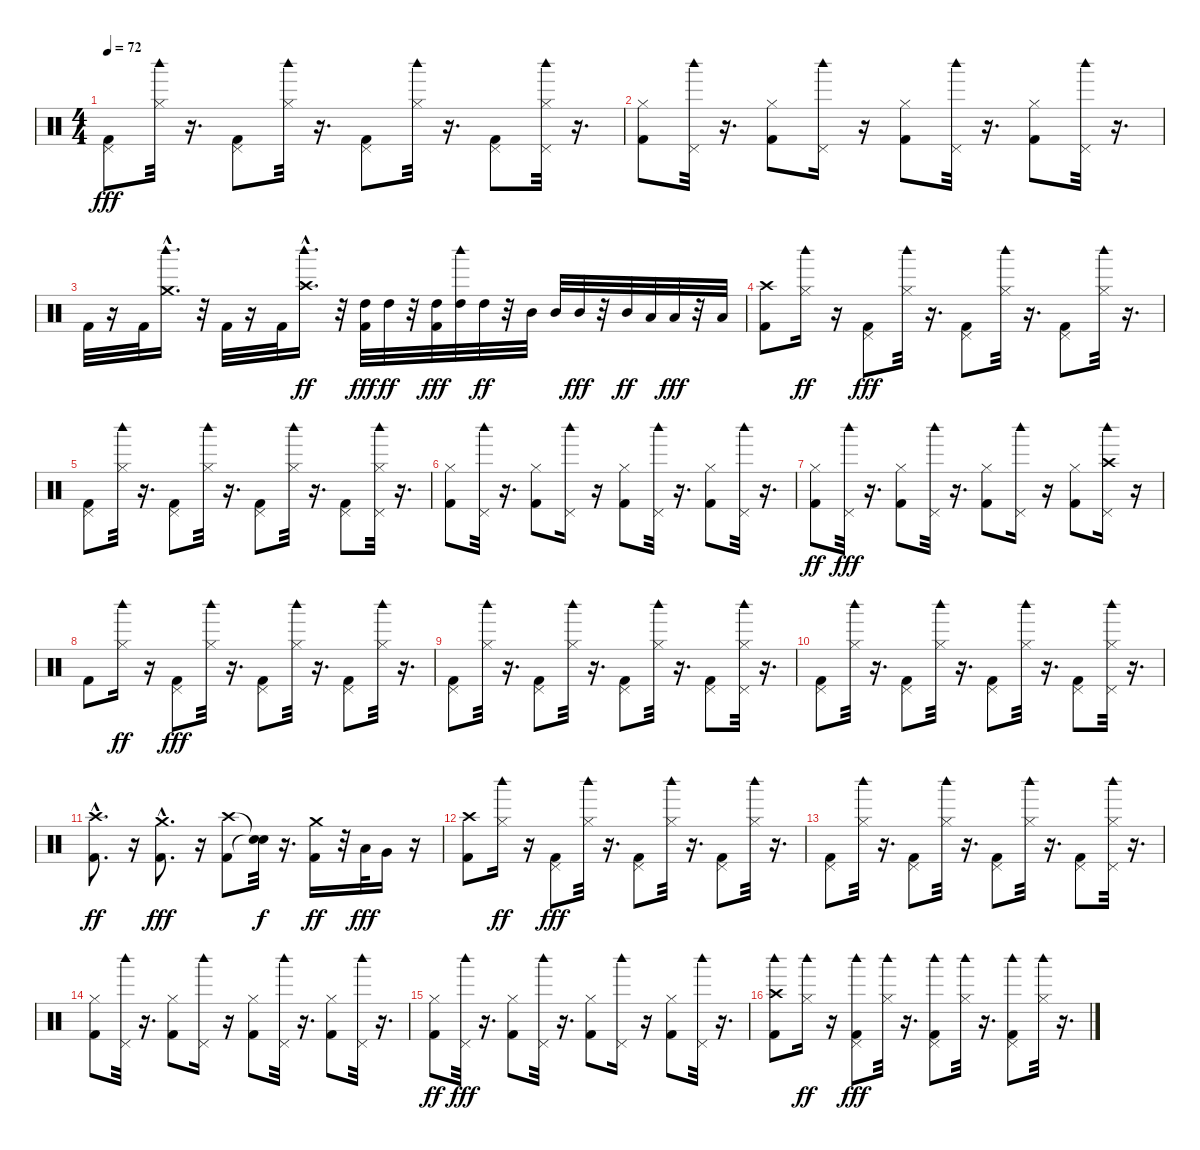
\track "" {instrument percussion}
\staff {score}
\articulation defaults
\ts (4 4)
\tempo 72
\clef neutral
\ks c
("Pedal Hi-Hat (hit)" "Kick (hit) 2").8{dy fff} ("Hi-Hat (closed)" "Woodblock high (hit)").32 r.16{d} ("Pedal Hi-Hat (hit)" "Kick (hit) 2").8 ("Hi-Hat (closed)" "Woodblock high (hit)").32 r.16{d} ("Pedal Hi-Hat (hit)" "Kick (hit) 2").8 ("Hi-Hat (closed)" "Woodblock high (hit)").32 r.16{d} ("Pedal Hi-Hat (hit)" "Kick (hit) 2").8 ("Hi-Hat (closed)" "Pedal Hi-Hat (hit)" "Woodblock high (hit)").32 r.16{d} |
("Hi-Hat (closed)" "Kick (hit) 2").8 ("Pedal Hi-Hat (hit)" "Woodblock high (hit)").32 r.16{d} ("Hi-Hat (closed)" "Kick (hit) 2").8 ("Pedal Hi-Hat (hit)" "Woodblock high (hit)").16 r.16 ("Hi-Hat (closed)" "Kick (hit) 2").8 ("Pedal Hi-Hat (hit)" "Woodblock high (hit)").32 r.16{d} ("Hi-Hat (closed)" "Kick (hit) 2").8 ("Pedal Hi-Hat (hit)" "Woodblock high (hit)").32 r.16{d} |
"Kick (hit) 2".32 r.16 "Kick (hit) 2".32 ("Crash medium (hit)" "Woodblock high (hit)"{hac}).16{d} r.32 "Kick (hit) 2".32 r.16 "Kick (hit) 2".32 ("Woodblock high (hit)"{hac} "Crash high (hit)").16{d dy ff} r.32 ("High Tom (hit)" "Kick (hit) 2").32{dy fff} "High Tom (hit)".32{dy ff} r.32 ("High Tom (hit)" "Kick (hit) 2").32{dy fff} ("High Tom (hit)" "Woodblock high (hit)").32 "High Tom (hit)".32{dy ff} r.32 "Mid Tom (hit)".32 "Mid Tom (hit)".32 "Mid Tom (hit)".32{dy fff} r.32 "Mid Tom (hit)".32{dy ff} "Low Tom (hit)".32 "Low Tom (hit)".32{dy fff} r.32 "Low Tom (hit)".32 |
("Kick (hit) 2" "Crash high (hit)").8 ("Woodblock high (hit)" "Hi-Hat (closed)").16{dy ff} r.16 ("Pedal Hi-Hat (hit)" "Kick (hit) 2").8{dy fff} ("Hi-Hat (closed)" "Woodblock high (hit)").32 r.16{d} ("Pedal Hi-Hat (hit)" "Kick (hit) 2").8 ("Hi-Hat (closed)" "Woodblock high (hit)").32 r.16{d} ("Pedal Hi-Hat (hit)" "Kick (hit) 2").8 ("Hi-Hat (closed)" "Woodblock high (hit)").32 r.16{d} |
("Pedal Hi-Hat (hit)" "Kick (hit) 2").8 ("Hi-Hat (closed)" "Woodblock high (hit)").32 r.16{d} ("Pedal Hi-Hat (hit)" "Kick (hit) 2").8 ("Hi-Hat (closed)" "Woodblock high (hit)").32 r.16{d} ("Pedal Hi-Hat (hit)" "Kick (hit) 2").8 ("Hi-Hat (closed)" "Woodblock high (hit)").32 r.16{d} ("Pedal Hi-Hat (hit)" "Kick (hit) 2").8 ("Hi-Hat (closed)" "Pedal Hi-Hat (hit)" "Woodblock high (hit)").32 r.16{d} |
("Hi-Hat (closed)" "Kick (hit) 2").8 ("Pedal Hi-Hat (hit)" "Woodblock high (hit)").32 r.16{d} ("Hi-Hat (closed)" "Kick (hit) 2").8 ("Pedal Hi-Hat (hit)" "Woodblock high (hit)").16 r.16 ("Hi-Hat (closed)" "Kick (hit) 2").8 ("Pedal Hi-Hat (hit)" "Woodblock high (hit)").32 r.16{d} ("Hi-Hat (closed)" "Kick (hit) 2").8 ("Pedal Hi-Hat (hit)" "Woodblock high (hit)").32 r.16{d} |
("Kick (hit) 2" "Hi-Hat (closed)").8{dy ff} ("Pedal Hi-Hat (hit)" "Woodblock high (hit)").32{dy fff} r.16{d} ("Hi-Hat (closed)" "Kick (hit) 2").8 ("Pedal Hi-Hat (hit)" "Woodblock high (hit)").32 r.16{d} ("Hi-Hat (closed)" "Kick (hit) 2").8 ("Pedal Hi-Hat (hit)" "Woodblock high (hit)").16 r.16 ("Hi-Hat (closed)" "Kick (hit) 2").8 ("Crash high (hit)" "Pedal Hi-Hat (hit)" "Woodblock high (hit)").16 r.16 |
"Kick (hit) 2".8 ("Woodblock high (hit)" "Hi-Hat (closed)").16{dy ff} r.16 ("Pedal Hi-Hat (hit)" "Kick (hit) 2").8{dy fff} ("Hi-Hat (closed)" "Woodblock high (hit)").32 r.16{d} ("Pedal Hi-Hat (hit)" "Kick (hit) 2").8 ("Hi-Hat (closed)" "Woodblock high (hit)").32 r.16{d} ("Pedal Hi-Hat (hit)" "Kick (hit) 2").8 ("Hi-Hat (closed)" "Woodblock high (hit)").32 r.16{d} |
("Pedal Hi-Hat (hit)" "Kick (hit) 2").8 ("Hi-Hat (closed)" "Woodblock high (hit)").32 r.16{d} ("Pedal Hi-Hat (hit)" "Kick (hit) 2").8 ("Hi-Hat (closed)" "Woodblock high (hit)").32 r.16{d} ("Pedal Hi-Hat (hit)" "Kick (hit) 2").8 ("Hi-Hat (closed)" "Woodblock high (hit)").32 r.16{d} ("Pedal Hi-Hat (hit)" "Kick (hit) 2").8 ("Hi-Hat (closed)" "Pedal Hi-Hat (hit)" "Woodblock high (hit)").32 r.16{d} |
("Pedal Hi-Hat (hit)" "Kick (hit) 2").8 ("Hi-Hat (closed)" "Woodblock high (hit)").32 r.16{d} ("Pedal Hi-Hat (hit)" "Kick (hit) 2").8 ("Hi-Hat (closed)" "Woodblock high (hit)").32 r.16{d} ("Pedal Hi-Hat (hit)" "Kick (hit) 2").8 ("Hi-Hat (closed)" "Woodblock high (hit)").32 r.16{d} ("Pedal Hi-Hat (hit)" "Kick (hit) 2").8 ("Hi-Hat (closed)" "Pedal Hi-Hat (hit)" "Woodblock high (hit)").32 r.16{d} |
("Kick (hit) 2"{hac} "Crash high (hit)"{hac}).8{d dy ff} r.16 ("Crash medium (hit)"{hac} "Kick (hit) 2"{hac}).8{d dy fff} r.16 ("Crash high (hit)" "Kick (hit) 2").8 ("Snare (hit)"{t} "Snare (hit)"{t}).32{dy f} r.16{d} ("Crash medium (hit)" "Kick (hit) 2").16{dy ff} r.32 "Low Tom (hit)".32{dy fff} "Very Low Tom (hit)".16 r.16 |
("Kick (hit) 2" "Crash high (hit)").8 ("Woodblock high (hit)" "Hi-Hat (closed)").16{dy ff} r.16 ("Pedal Hi-Hat (hit)" "Kick (hit) 2").8{dy fff} ("Hi-Hat (closed)" "Woodblock high (hit)").32 r.16{d} ("Pedal Hi-Hat (hit)" "Kick (hit) 2").8 ("Hi-Hat (closed)" "Woodblock high (hit)").32 r.16{d} ("Pedal Hi-Hat (hit)" "Kick (hit) 2").8 ("Hi-Hat (closed)" "Woodblock high (hit)").32 r.16{d} |
("Pedal Hi-Hat (hit)" "Kick (hit) 2").8 ("Hi-Hat (closed)" "Woodblock high (hit)").32 r.16{d} ("Pedal Hi-Hat (hit)" "Kick (hit) 2").8 ("Hi-Hat (closed)" "Woodblock high (hit)").32 r.16{d} ("Pedal Hi-Hat (hit)" "Kick (hit) 2").8 ("Hi-Hat (closed)" "Woodblock high (hit)").32 r.16{d} ("Pedal Hi-Hat (hit)" "Kick (hit) 2").8 ("Hi-Hat (closed)" "Pedal Hi-Hat (hit)" "Woodblock high (hit)").32 r.16{d} |
("Hi-Hat (closed)" "Kick (hit) 2").8 ("Pedal Hi-Hat (hit)" "Woodblock high (hit)").32 r.16{d} ("Hi-Hat (closed)" "Kick (hit) 2").8 ("Pedal Hi-Hat (hit)" "Woodblock high (hit)").16 r.16 ("Hi-Hat (closed)" "Kick (hit) 2").8 ("Pedal Hi-Hat (hit)" "Woodblock high (hit)").32 r.16{d} ("Hi-Hat (closed)" "Kick (hit) 2").8 ("Pedal Hi-Hat (hit)" "Woodblock high (hit)").32 r.16{d} |
("Kick (hit) 2" "Hi-Hat (closed)").8{dy ff} ("Pedal Hi-Hat (hit)" "Woodblock high (hit)").32{dy fff} r.16{d} ("Hi-Hat (closed)" "Kick (hit) 2").8 ("Pedal Hi-Hat (hit)" "Woodblock high (hit)").32 r.16{d} ("Hi-Hat (closed)" "Kick (hit) 2").8 ("Pedal Hi-Hat (hit)" "Woodblock high (hit)").16 r.16 ("Hi-Hat (closed)" "Kick (hit) 2").8 ("Pedal Hi-Hat (hit)" "Woodblock high (hit)").32 r.16{d} |
("Kick (hit) 2" "Crash high (hit)" "Woodblock high (hit)").8 ("Woodblock high (hit)" "Hi-Hat (closed)").16{dy ff} r.16 ("Pedal Hi-Hat (hit)" "Kick (hit) 2" "Woodblock high (hit)").8{dy fff} ("Hi-Hat (closed)" "Woodblock high (hit)").32 r.16{d} ("Pedal Hi-Hat (hit)" "Kick (hit) 2" "Woodblock high (hit)").8 ("Hi-Hat (closed)" "Woodblock high (hit)").32 r.16{d} ("Pedal Hi-Hat (hit)" "Kick (hit) 2" "Woodblock high (hit)").8 ("Hi-Hat (closed)" "Woodblock high (hit)").32 r.16{d}
